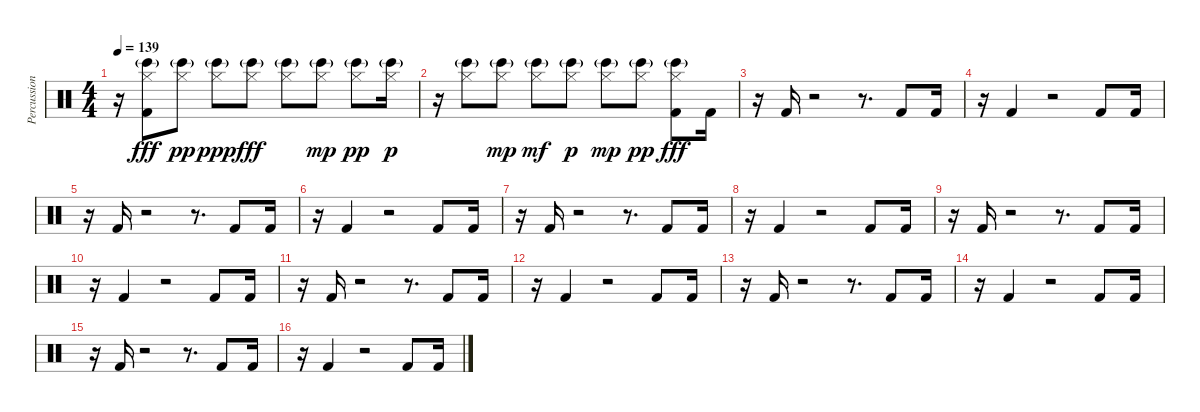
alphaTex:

\track ("Percussion" "Percussion") {instrument percussion}
\staff {score}
\articulation defaults
\ts (4 4)
\tempo 139
\clef neutral
\ks c
r.16{dy fff} ("Hi-Hat (closed)" "Bongo High (hit)"{g} "Kick (hit) 2").8{balance 16} ("Hi-Hat (closed)" "Bongo High (hit)"{g}).8{dy pp balance 0} ("Hi-Hat (closed)" "Bongo High (hit)"{g}).8{dy ppp balance 16} ("Hi-Hat (closed)" "Bongo High (hit)"{g}).8{dy fff balance 0} ("Hi-Hat (closed)" "Bongo High (hit)"{g}).8{balance 16} ("Hi-Hat (closed)" "Bongo High (hit)"{g}).8{dy mp balance 0} ("Hi-Hat (closed)" "Bongo High (hit)"{g}).8{dy pp balance 16} ("Hi-Hat (closed)" "Bongo High (hit)"{g}).16{dy p balance 0} |
r.16 ("Hi-Hat (closed)" "Bongo High (hit)"{g}).8{balance 16} ("Hi-Hat (closed)" "Bongo High (hit)"{g}).8{dy mp balance 0} ("Hi-Hat (closed)" "Bongo High (hit)"{g}).8{dy mf balance 16} ("Hi-Hat (closed)" "Bongo High (hit)"{g}).8{dy p balance 0} ("Hi-Hat (closed)" "Bongo High (hit)"{g}).8{dy mp balance 16} ("Hi-Hat (closed)" "Bongo High (hit)"{g}).8{dy pp balance 0} ("Hi-Hat (closed)" "Bongo High (hit)"{g} "Kick (hit) 2").8{dy fff balance 8} "Kick (hit) 2".16 |
r.16 "Kick (hit) 2".16 r.2 r.8{d} "Kick (hit) 2".8 "Kick (hit) 2".16 |
r.16 "Kick (hit) 2".4 r.2 "Kick (hit) 2".8 "Kick (hit) 2".16 |
r.16 "Kick (hit) 2".16 r.2 r.8{d} "Kick (hit) 2".8 "Kick (hit) 2".16 |
r.16 "Kick (hit) 2".4 r.2 "Kick (hit) 2".8 "Kick (hit) 2".16 |
r.16 "Kick (hit) 2".16 r.2 r.8{d} "Kick (hit) 2".8 "Kick (hit) 2".16 |
r.16 "Kick (hit) 2".4 r.2 "Kick (hit) 2".8 "Kick (hit) 2".16 |
r.16 "Kick (hit) 2".16 r.2 r.8{d} "Kick (hit) 2".8 "Kick (hit) 2".16 |
r.16 "Kick (hit) 2".4 r.2 "Kick (hit) 2".8 "Kick (hit) 2".16 |
r.16 "Kick (hit) 2".16 r.2 r.8{d} "Kick (hit) 2".8 "Kick (hit) 2".16 |
r.16 "Kick (hit) 2".4 r.2 "Kick (hit) 2".8 "Kick (hit) 2".16 |
r.16 "Kick (hit) 2".16 r.2 r.8{d} "Kick (hit) 2".8 "Kick (hit) 2".16 |
r.16 "Kick (hit) 2".4 r.2 "Kick (hit) 2".8 "Kick (hit) 2".16 |
r.16 "Kick (hit) 2".16 r.2 r.8{d} "Kick (hit) 2".8 "Kick (hit) 2".16 |
r.16 "Kick (hit) 2".4 r.2 "Kick (hit) 2".8 "Kick (hit) 2".16
